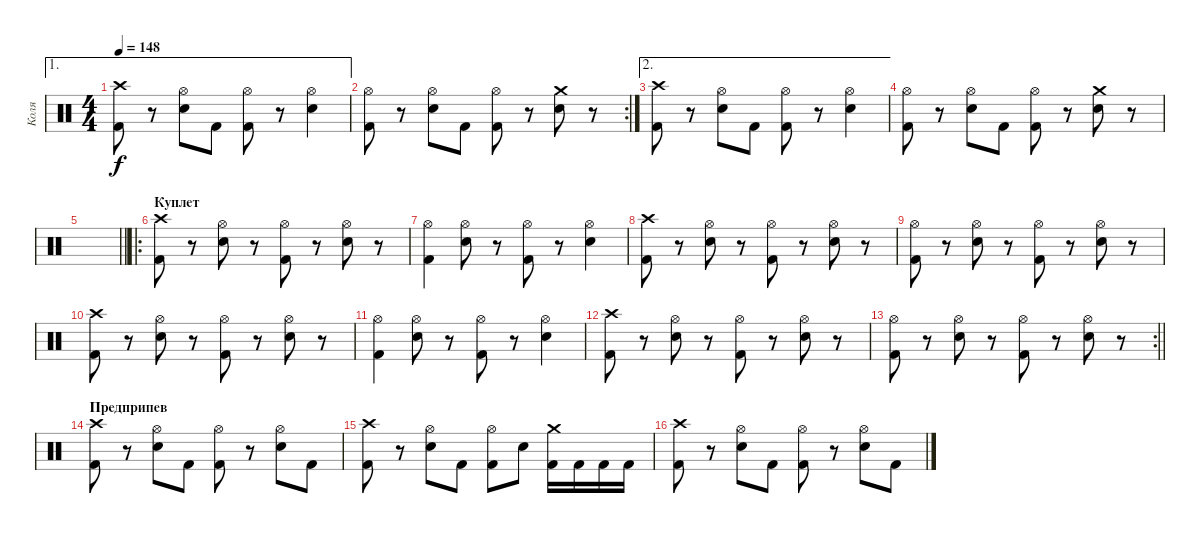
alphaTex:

\track ("Коля" "Коля") {instrument percussion}
\staff {score}
\articulation defaults
\ae 1
\ts (4 4)
\tempo 148
\clef neutral
\ks c
("Kick (hit) 2" "Crash high (hit)").8{dy f} r.8 ("Electric Snare (hit)" "Hi-Hat (open)").8 "Kick (hit) 2".8 ("Kick (hit) 2" "Hi-Hat (open)").8 r.8 ("Electric Snare (hit)" "Hi-Hat (open)").4 |
\rc 2
("Kick (hit) 2" "Hi-Hat (open)").8 r.8 ("Electric Snare (hit)" "Hi-Hat (open)").8 "Kick (hit) 2".8 ("Kick (hit) 2" "Hi-Hat (open)").8 r.8 ("Electric Snare (hit)" "Crash medium (hit)").8 r.8 |
\ae 2
("Kick (hit) 2" "Crash high (hit)").8 r.8 ("Electric Snare (hit)" "Hi-Hat (open)").8 "Kick (hit) 2".8 ("Kick (hit) 2" "Hi-Hat (open)").8 r.8 ("Electric Snare (hit)" "Hi-Hat (open)").4 |
("Kick (hit) 2" "Hi-Hat (open)").8 r.8 ("Electric Snare (hit)" "Hi-Hat (open)").8 "Kick (hit) 2".8 ("Kick (hit) 2" "Hi-Hat (open)").8 r.8 ("Electric Snare (hit)" "Crash medium (hit)").8 r.8 |
\barLineRight lightlight
|
\ro
\section ("" "Куплет")
("Kick (hit) 2" "Crash high (hit)").8 r.8 ("Electric Snare (hit)" "Hi-Hat (open)").8 r.8 ("Kick (hit) 2" "Hi-Hat (open)").8 r.8 ("Electric Snare (hit)" "Hi-Hat (open)").8 r.8 |
("Kick (hit) 2" "Hi-Hat (open)").4 ("Electric Snare (hit)" "Hi-Hat (open)").8 r.8 ("Kick (hit) 2" "Hi-Hat (open)").8 r.8 ("Electric Snare (hit)" "Hi-Hat (open)").4 |
("Kick (hit) 2" "Crash high (hit)").8 r.8 ("Electric Snare (hit)" "Hi-Hat (open)").8 r.8 ("Kick (hit) 2" "Hi-Hat (open)").8 r.8 ("Electric Snare (hit)" "Hi-Hat (open)").8 r.8 |
("Kick (hit) 2" "Hi-Hat (open)").8 r.8 ("Electric Snare (hit)" "Hi-Hat (open)").8 r.8 ("Kick (hit) 2" "Hi-Hat (open)").8 r.8 ("Electric Snare (hit)" "Hi-Hat (open)").8 r.8 |
("Kick (hit) 2" "Crash high (hit)").8 r.8 ("Electric Snare (hit)" "Hi-Hat (open)").8 r.8 ("Kick (hit) 2" "Hi-Hat (open)").8 r.8 ("Electric Snare (hit)" "Hi-Hat (open)").8 r.8 |
("Kick (hit) 2" "Hi-Hat (open)").4 ("Electric Snare (hit)" "Hi-Hat (open)").8 r.8 ("Kick (hit) 2" "Hi-Hat (open)").8 r.8 ("Electric Snare (hit)" "Hi-Hat (open)").4 |
("Kick (hit) 2" "Crash high (hit)").8 r.8 ("Electric Snare (hit)" "Hi-Hat (open)").8 r.8 ("Kick (hit) 2" "Hi-Hat (open)").8 r.8 ("Electric Snare (hit)" "Hi-Hat (open)").8 r.8 |
\rc 2
\barLineRight lightlight
("Kick (hit) 2" "Hi-Hat (open)").8 r.8 ("Electric Snare (hit)" "Hi-Hat (open)").8 r.8 ("Kick (hit) 2" "Hi-Hat (open)").8 r.8 ("Electric Snare (hit)" "Hi-Hat (open)").8 r.8 |
\section ("" "Предприпев")
("Kick (hit) 2" "Crash high (hit)").8 r.8 ("Electric Snare (hit)" "Hi-Hat (open)").8 "Kick (hit) 2".8 ("Kick (hit) 2" "Hi-Hat (open)").8 r.8 ("Electric Snare (hit)" "Hi-Hat (open)").8 "Kick (hit) 2".8 |
("Kick (hit) 2" "Crash high (hit)").8 r.8 ("Electric Snare (hit)" "Hi-Hat (open)").8 "Kick (hit) 2".8 ("Kick (hit) 2" "Hi-Hat (open)").8 "Electric Snare (hit)".8 ("Kick (hit) 2" "Crash medium (hit)").16 "Kick (hit) 2".16 "Kick (hit) 2".16 "Kick (hit) 2".16 |
("Kick (hit) 2" "Crash high (hit)").8 r.8 ("Electric Snare (hit)" "Hi-Hat (open)").8 "Kick (hit) 2".8 ("Kick (hit) 2" "Hi-Hat (open)").8 r.8 ("Electric Snare (hit)" "Hi-Hat (open)").8 "Kick (hit) 2".8
